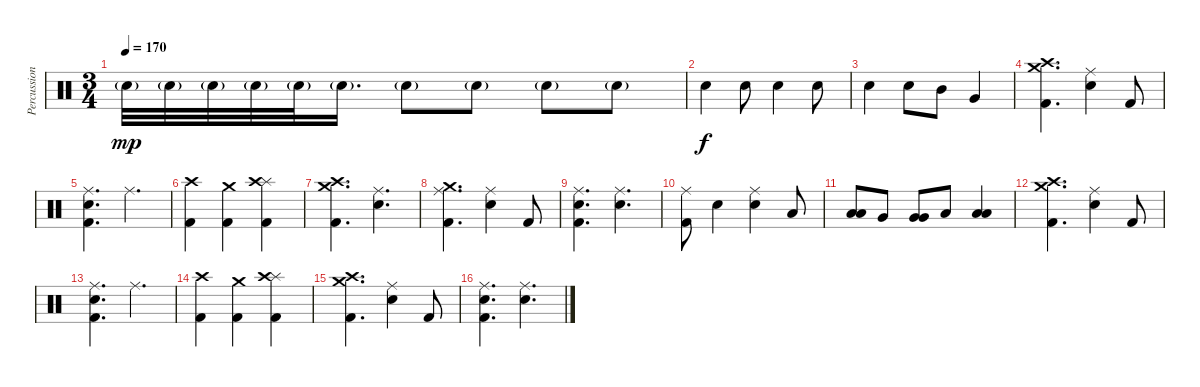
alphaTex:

\track ("Percussion" "Percussion") {instrument percussion}
\staff {score}
\articulation defaults
\ts (3 4)
\tempo 170
\clef neutral
\ks c "Electric Snare (hit)"{g}.32{dy mp} "Electric Snare (hit)"{g}.32 "Electric Snare (hit)"{g}.32 "Electric Snare (hit)"{g}.32 "Electric Snare (hit)"{g}.32 "Electric Snare (hit)"{g}.16{d} "Electric Snare (hit)"{g}.8 "Electric Snare (hit)"{g}.8 "Electric Snare (hit)"{g}.8 "Electric Snare (hit)"{g}.8
|
"Electric Snare (hit)".4{dy f} "Electric Snare (hit)".8 "Electric Snare (hit)".4 "Electric Snare (hit)".8 |
"Electric Snare (hit)".4 "Electric Snare (hit)".8 "Mid Tom (hit)".8 "Very Low Tom (hit)".4 |
("Crash medium (hit)" "Crash high (hit)" "Kick (hit) 2").4{d} ("Ride (middle)" "Electric Snare (hit)").4 "Kick (hit) 2".8 |
("Ride (middle)" "Electric Snare (hit)" "Kick (hit) 2").4{d} "Ride (middle)".4{d} |
("Crash high (hit)" "Kick (hit) 2").4 ("Crash medium (hit)" "Kick (hit) 2").4 ("Splash (hit)" "Crash high (hit)" "Kick (hit) 2").4 |
("Crash medium (hit)" "Crash high (hit)" "Kick (hit) 2").4{d} ("Ride (middle)" "Electric Snare (hit)").4{d} |
("Ride (middle)" "Crash medium (hit)" "Kick (hit) 2").4{d} ("Ride (middle)" "Electric Snare (hit)").4 "Kick (hit) 2".8 |
("Ride (middle)" "Electric Snare (hit)" "Kick (hit) 2").4{d} ("Ride (middle)" "Electric Snare (hit)").4{d} |
("Ride (middle)" "Kick (hit) 2").8 "Electric Snare (hit)".4 ("Ride (middle)" "Electric Snare (hit)").4 "Low Tom (hit)".8 |
("Low Tom (hit)" "Low Tom (hit)").8{bd 240} "Very Low Tom (hit)".8 ("Very Low Tom (hit)" "Very Low Tom (hit)").8{bd 240} "Low Floor Tom (hit)".8 ("Low Floor Tom (hit)" "Low Floor Tom (hit)").4{bd 240} |
("Crash medium (hit)" "Crash high (hit)" "Kick (hit) 2").4{d} ("Ride (middle)" "Electric Snare (hit)").4 "Kick (hit) 2".8 |
("Ride (middle)" "Electric Snare (hit)" "Kick (hit) 2").4{d} "Ride (middle)".4{d} |
("Crash high (hit)" "Kick (hit) 2").4 ("Crash medium (hit)" "Kick (hit) 2").4 ("Splash (hit)" "Crash high (hit)" "Kick (hit) 2").4 |
("Crash medium (hit)" "Crash high (hit)" "Kick (hit) 2").4{d} ("Ride (middle)" "Electric Snare (hit)").4 "Kick (hit) 2".8 |
("Ride (middle)" "Electric Snare (hit)" "Kick (hit) 2").4{d} ("Ride (middle)" "Electric Snare (hit)").4{d}
